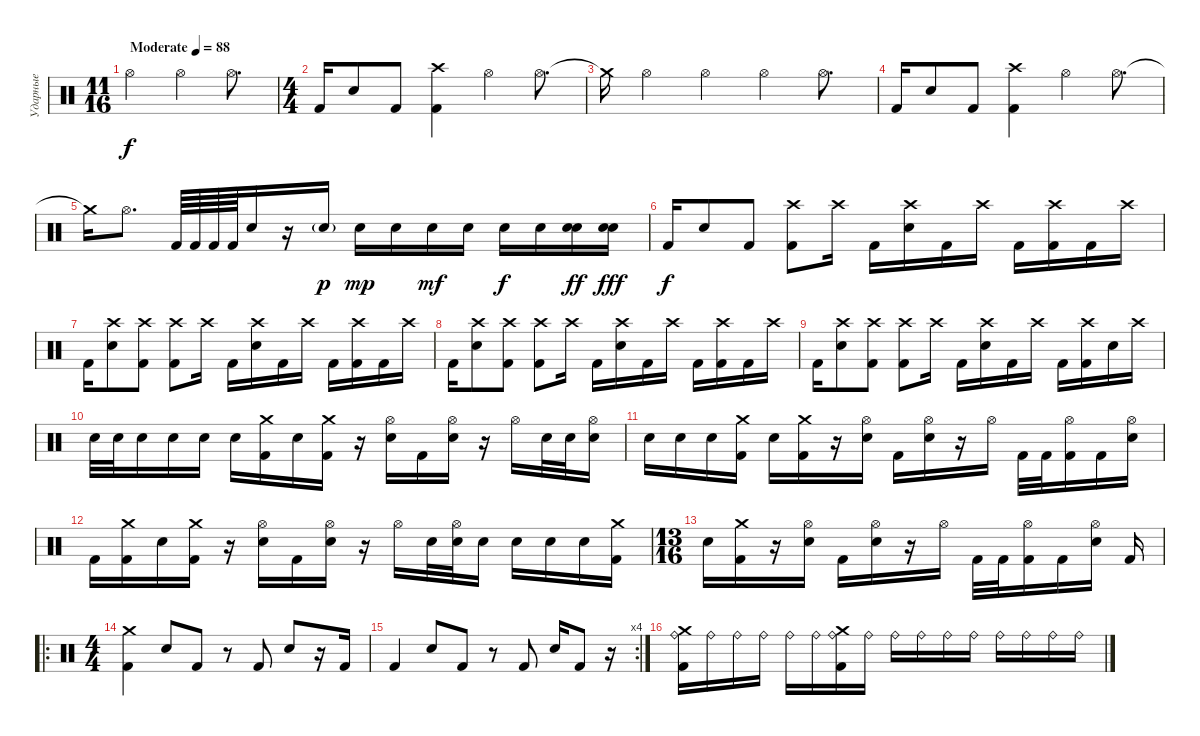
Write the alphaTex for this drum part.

\track ("Ударные" "Ударные") {instrument percussion}
\staff {score}
\articulation defaults
\ts (11 16)
\tempo (88 "Moderate")
\clef neutral
\ks c "Hi-Hat (open)".4{dy f} "Hi-Hat (open)".4 "Hi-Hat (open)".8{d}
|
\ts (4 4)
"Kick (hit) 2".16 "Snare (hit) 2".8 "Kick (hit) 2".8 ("Crash high (hit)" "Kick (hit) 2").4 "Hi-Hat (open)".4 "Hi-Hat (open)".8{d} |
"Crash medium (hit)"{t}.16 "Hi-Hat (open)".4 "Hi-Hat (open)".4 "Hi-Hat (open)".4 "Hi-Hat (open)".8{d} |
"Kick (hit) 2".16 "Snare (hit) 2".8 "Kick (hit) 2".8 ("Crash high (hit)" "Kick (hit) 2").4 "Hi-Hat (open)".4 "Hi-Hat (open)".8{d} |
"Crash medium (hit)"{t}.16 "Hi-Hat (open)".8{d} "Kick (hit) 2".64 "Kick (hit) 2".64 "Kick (hit) 2".64 "Kick (hit) 2".64 "Snare (hit) 2".16 r.16 "Snare (hit) 2"{g}.16{dy p} "Snare (hit) 2".16{dy mp} "Snare (hit) 2".16 "Snare (hit) 2".16{dy mf} "Snare (hit) 2".16 "Snare (hit) 2".16{dy f} "Snare (hit) 2".16 ("Snare (hit) 2" "Snare (hit) 2").16{dy ff} ("Snare (hit) 2" "Snare (hit) 2").16{dy fff} |
"Kick (hit) 2".16{dy f} "Snare (hit) 2".8 "Kick (hit) 2".8 ("Crash high (hit)" "Kick (hit) 2").8 "Crash high (hit)".16 "Kick (hit) 2".16 ("Crash high (hit)" "Snare (hit) 2").16 "Kick (hit) 2".16 "Crash high (hit)".16 "Kick (hit) 2".16 ("Crash high (hit)" "Kick (hit) 2").16 "Kick (hit) 2".16 "Crash high (hit)".16 |
"Kick (hit) 2".16 ("Crash high (hit)" "Snare (hit) 2").8 ("Crash high (hit)" "Kick (hit) 2").8 ("Crash high (hit)" "Kick (hit) 2").8 "Crash high (hit)".16 "Kick (hit) 2".16 ("Crash high (hit)" "Snare (hit) 2").16 "Kick (hit) 2".16 "Crash high (hit)".16 "Kick (hit) 2".16 ("Crash high (hit)" "Kick (hit) 2").16 "Kick (hit) 2".16 "Crash high (hit)".16 |
"Kick (hit) 2".16 ("Crash high (hit)" "Snare (hit) 2").8 ("Crash high (hit)" "Kick (hit) 2").8 ("Crash high (hit)" "Kick (hit) 2").8 "Crash high (hit)".16 "Kick (hit) 2".16 ("Crash high (hit)" "Snare (hit) 2").16 "Kick (hit) 2".16 "Crash high (hit)".16 "Kick (hit) 2".16 ("Crash high (hit)" "Kick (hit) 2").16 "Kick (hit) 2".16 "Crash high (hit)".16 |
"Kick (hit) 2".16 ("Crash high (hit)" "Snare (hit) 2").8 ("Crash high (hit)" "Kick (hit) 2").8 ("Crash high (hit)" "Kick (hit) 2").8 "Crash high (hit)".16 "Kick (hit) 2".16 ("Crash high (hit)" "Snare (hit) 2").16 "Kick (hit) 2".16 "Crash high (hit)".16 "Kick (hit) 2".16 ("Crash high (hit)" "Kick (hit) 2").16 "Snare (hit) 2".16 "Crash high (hit)".16 |
"Snare (hit) 2".32 "Snare (hit) 2".32 "Snare (hit) 2".16 "Snare (hit) 2".16 "Snare (hit) 2".16 "Snare (hit) 2".16 ("Crash medium (hit)" "Kick (hit) 2").16 "Snare (hit) 2".16 ("Crash medium (hit)" "Kick (hit) 2").16 r.16 ("Hi-Hat (open)" "Snare (hit) 2").16 "Kick (hit) 2".16 ("Hi-Hat (open)" "Snare (hit) 2").16 r.16 "Hi-Hat (open)".16 "Snare (hit) 2".32 "Snare (hit) 2".32 ("Hi-Hat (open)" "Snare (hit) 2").16 |
"Snare (hit) 2".16 "Snare (hit) 2".16 "Snare (hit) 2".16 ("Crash medium (hit)" "Kick (hit) 2").16 "Snare (hit) 2".16 ("Crash medium (hit)" "Kick (hit) 2").16 r.16 ("Hi-Hat (open)" "Snare (hit) 2").16 "Kick (hit) 2".16 ("Hi-Hat (open)" "Snare (hit) 2").16 r.16 "Hi-Hat (open)".16 "Kick (hit) 2".32 "Kick (hit) 2".32 ("Hi-Hat (open)" "Kick (hit) 2").16 "Kick (hit) 2".16 ("Hi-Hat (open)" "Snare (hit) 2").16 |
"Kick (hit) 2".16 ("Crash medium (hit)" "Kick (hit) 2").16 "Snare (hit) 2".16 ("Crash medium (hit)" "Kick (hit) 2").16 r.16 ("Hi-Hat (open)" "Snare (hit) 2").16 "Kick (hit) 2".16 ("Hi-Hat (open)" "Snare (hit) 2").16 r.16 "Hi-Hat (open)".16 "Snare (hit) 2".32 ("Hi-Hat (open)" "Snare (hit) 2").32 "Snare (hit) 2".16 "Snare (hit) 2".16 "Snare (hit) 2".16 "Snare (hit) 2".16 ("Crash medium (hit)" "Kick (hit) 2").16 |
\ts (13 16)
"Snare (hit) 2".16 ("Crash medium (hit)" "Kick (hit) 2").16 r.16 ("Hi-Hat (open)" "Snare (hit) 2").16 "Kick (hit) 2".16 ("Hi-Hat (open)" "Snare (hit) 2").16 r.16 "Hi-Hat (open)".16 "Kick (hit) 2".32 "Kick (hit) 2".32 ("Hi-Hat (open)" "Kick (hit) 2").16 "Kick (hit) 2".16 ("Hi-Hat (open)" "Snare (hit) 2").16 "Kick (hit) 2".16 |
\ro
\ts (4 4)
("Crash medium (hit)" "Kick (hit) 2").4 "Snare (hit) 2".8 "Kick (hit) 2".8 r.8 "Kick (hit) 2".8 "Snare (hit) 2".8 r.16 "Kick (hit) 2".16 |
\rc 4 "Kick (hit) 2".4 "Snare (hit) 2".8 "Kick (hit) 2".8
r.8 "Kick (hit) 2".8 "Snare (hit) 2".16 "Kick (hit) 2".8 r.16 |
("Crash medium (hit)" "Ride (bell)" "Kick (hit) 2").16 "Ride (bell)".16 "Ride (bell)".16 "Ride (bell)".16 "Ride (bell)".16 "Ride (bell)".16 ("Crash medium (hit)" "Ride (bell)" "Kick (hit) 2").16 "Ride (bell)".16 "Ride (bell)".16 "Ride (bell)".16 "Ride (bell)".16 "Ride (bell)".16 "Ride (bell)".16 "Ride (bell)".16 "Ride (bell)".16 "Ride (bell)".16
